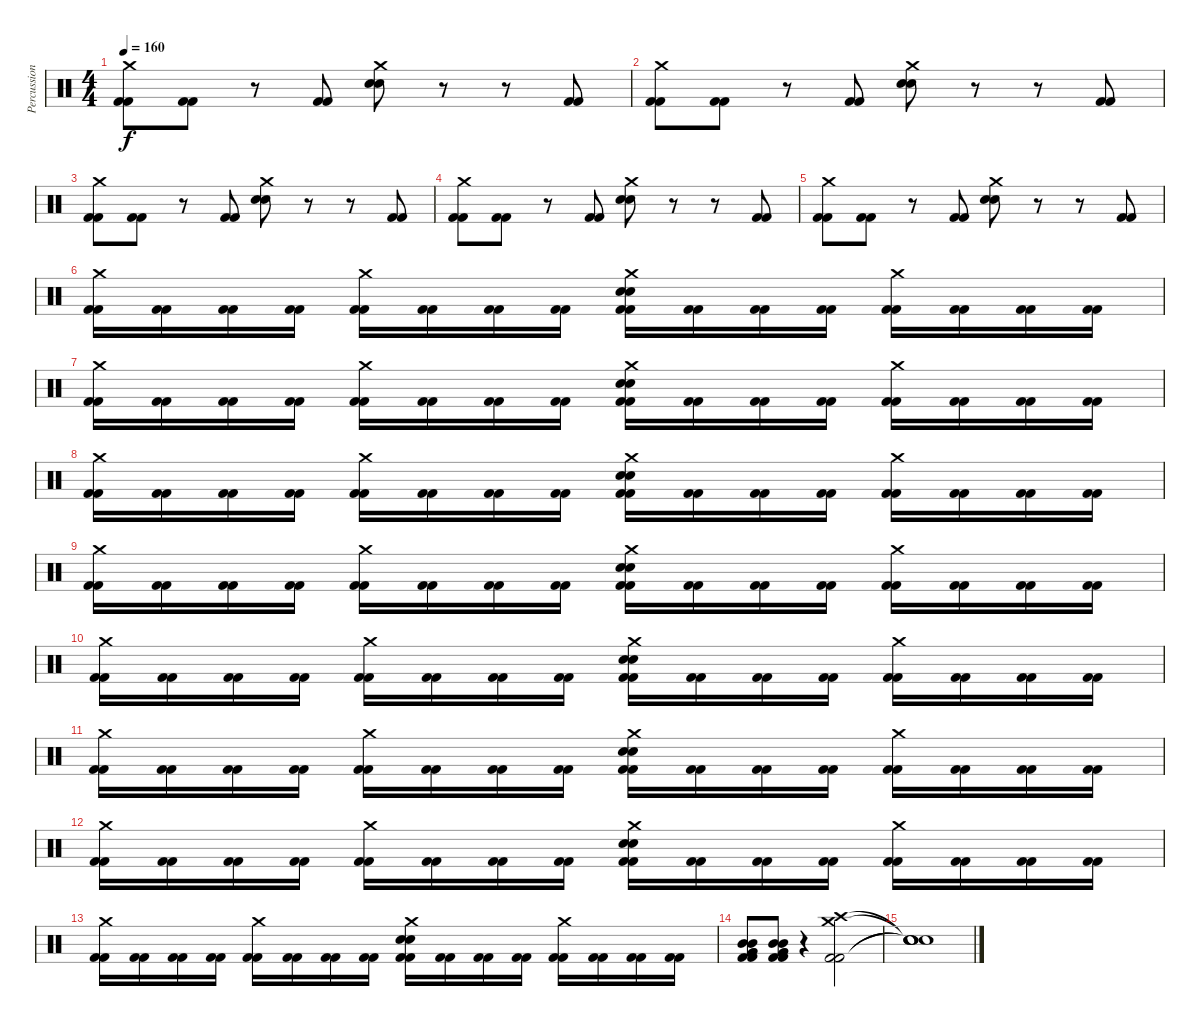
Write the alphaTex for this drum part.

\track ("Percussion" "Percussion") {instrument percussion}
\staff {score}
\articulation defaults
\ts (4 4)
\tempo 160
\clef neutral
\ks c
("Crash medium (hit)" "Kick (hit) 2" "Kick (hit) 2").8{dy f} ("Kick (hit) 2" "Kick (hit) 2").8 r.8 ("Kick (hit) 2" "Kick (hit) 2").8 ("Crash medium (hit)" "Snare (hit) 2" "Snare (hit) 2").8 r.8 r.8 ("Kick (hit) 2" "Kick (hit) 2").8 |
("Crash medium (hit)" "Kick (hit) 2" "Kick (hit) 2").8 ("Kick (hit) 2" "Kick (hit) 2").8 r.8 ("Kick (hit) 2" "Kick (hit) 2").8 ("Crash medium (hit)" "Snare (hit) 2" "Snare (hit) 2").8 r.8 r.8 ("Kick (hit) 2" "Kick (hit) 2").8 |
("Crash medium (hit)" "Kick (hit) 2" "Kick (hit) 2").8 ("Kick (hit) 2" "Kick (hit) 2").8 r.8 ("Kick (hit) 2" "Kick (hit) 2").8 ("Crash medium (hit)" "Snare (hit) 2" "Snare (hit) 2").8 r.8 r.8 ("Kick (hit) 2" "Kick (hit) 2").8 |
("Crash medium (hit)" "Kick (hit) 2" "Kick (hit) 2").8 ("Kick (hit) 2" "Kick (hit) 2").8 r.8 ("Kick (hit) 2" "Kick (hit) 2").8 ("Crash medium (hit)" "Snare (hit) 2" "Snare (hit) 2").8 r.8 r.8 ("Kick (hit) 2" "Kick (hit) 2").8 |
("Crash medium (hit)" "Kick (hit) 2" "Kick (hit) 2").8 ("Kick (hit) 2" "Kick (hit) 2").8 r.8 ("Kick (hit) 2" "Kick (hit) 2").8 ("Crash medium (hit)" "Snare (hit) 2" "Snare (hit) 2").8 r.8 r.8 ("Kick (hit) 2" "Kick (hit) 2").8 |
("Crash medium (hit)" "Kick (hit) 2" "Kick (hit) 2").16 ("Kick (hit) 2" "Kick (hit) 2").16 ("Kick (hit) 2" "Kick (hit) 2").16 ("Kick (hit) 2" "Kick (hit) 2").16 ("Crash medium (hit)" "Kick (hit) 2" "Kick (hit) 2").16 ("Kick (hit) 2" "Kick (hit) 2").16 ("Kick (hit) 2" "Kick (hit) 2").16 ("Kick (hit) 2" "Kick (hit) 2").16 ("Crash medium (hit)" "Snare (hit) 2" "Snare (hit) 2" "Kick (hit) 2" "Kick (hit) 2").16 ("Kick (hit) 2" "Kick (hit) 2").16 ("Kick (hit) 2" "Kick (hit) 2").16 ("Kick (hit) 2" "Kick (hit) 2").16 ("Crash medium (hit)" "Kick (hit) 2" "Kick (hit) 2").16 ("Kick (hit) 2" "Kick (hit) 2").16 ("Kick (hit) 2" "Kick (hit) 2").16 ("Kick (hit) 2" "Kick (hit) 2").16 |
("Crash medium (hit)" "Kick (hit) 2" "Kick (hit) 2").16 ("Kick (hit) 2" "Kick (hit) 2").16 ("Kick (hit) 2" "Kick (hit) 2").16 ("Kick (hit) 2" "Kick (hit) 2").16 ("Crash medium (hit)" "Kick (hit) 2" "Kick (hit) 2").16 ("Kick (hit) 2" "Kick (hit) 2").16 ("Kick (hit) 2" "Kick (hit) 2").16 ("Kick (hit) 2" "Kick (hit) 2").16 ("Crash medium (hit)" "Snare (hit) 2" "Snare (hit) 2" "Kick (hit) 2" "Kick (hit) 2").16 ("Kick (hit) 2" "Kick (hit) 2").16 ("Kick (hit) 2" "Kick (hit) 2").16 ("Kick (hit) 2" "Kick (hit) 2").16 ("Crash medium (hit)" "Kick (hit) 2" "Kick (hit) 2").16 ("Kick (hit) 2" "Kick (hit) 2").16 ("Kick (hit) 2" "Kick (hit) 2").16 ("Kick (hit) 2" "Kick (hit) 2").16 |
("Crash medium (hit)" "Kick (hit) 2" "Kick (hit) 2").16 ("Kick (hit) 2" "Kick (hit) 2").16 ("Kick (hit) 2" "Kick (hit) 2").16 ("Kick (hit) 2" "Kick (hit) 2").16 ("Crash medium (hit)" "Kick (hit) 2" "Kick (hit) 2").16 ("Kick (hit) 2" "Kick (hit) 2").16 ("Kick (hit) 2" "Kick (hit) 2").16 ("Kick (hit) 2" "Kick (hit) 2").16 ("Crash medium (hit)" "Snare (hit) 2" "Snare (hit) 2" "Kick (hit) 2" "Kick (hit) 2").16 ("Kick (hit) 2" "Kick (hit) 2").16 ("Kick (hit) 2" "Kick (hit) 2").16 ("Kick (hit) 2" "Kick (hit) 2").16 ("Crash medium (hit)" "Kick (hit) 2" "Kick (hit) 2").16 ("Kick (hit) 2" "Kick (hit) 2").16 ("Kick (hit) 2" "Kick (hit) 2").16 ("Kick (hit) 2" "Kick (hit) 2").16 |
("Crash medium (hit)" "Kick (hit) 2" "Kick (hit) 2").16 ("Kick (hit) 2" "Kick (hit) 2").16 ("Kick (hit) 2" "Kick (hit) 2").16 ("Kick (hit) 2" "Kick (hit) 2").16 ("Crash medium (hit)" "Kick (hit) 2" "Kick (hit) 2").16 ("Kick (hit) 2" "Kick (hit) 2").16 ("Kick (hit) 2" "Kick (hit) 2").16 ("Kick (hit) 2" "Kick (hit) 2").16 ("Crash medium (hit)" "Snare (hit) 2" "Snare (hit) 2" "Kick (hit) 2" "Kick (hit) 2").16 ("Kick (hit) 2" "Kick (hit) 2").16 ("Kick (hit) 2" "Kick (hit) 2").16 ("Kick (hit) 2" "Kick (hit) 2").16 ("Crash medium (hit)" "Kick (hit) 2" "Kick (hit) 2").16 ("Kick (hit) 2" "Kick (hit) 2").16 ("Kick (hit) 2" "Kick (hit) 2").16 ("Kick (hit) 2" "Kick (hit) 2").16 |
("Crash medium (hit)" "Kick (hit) 2" "Kick (hit) 2").16 ("Kick (hit) 2" "Kick (hit) 2").16 ("Kick (hit) 2" "Kick (hit) 2").16 ("Kick (hit) 2" "Kick (hit) 2").16 ("Crash medium (hit)" "Kick (hit) 2" "Kick (hit) 2").16 ("Kick (hit) 2" "Kick (hit) 2").16 ("Kick (hit) 2" "Kick (hit) 2").16 ("Kick (hit) 2" "Kick (hit) 2").16 ("Crash medium (hit)" "Snare (hit) 2" "Snare (hit) 2" "Kick (hit) 2" "Kick (hit) 2").16 ("Kick (hit) 2" "Kick (hit) 2").16 ("Kick (hit) 2" "Kick (hit) 2").16 ("Kick (hit) 2" "Kick (hit) 2").16 ("Crash medium (hit)" "Kick (hit) 2" "Kick (hit) 2").16 ("Kick (hit) 2" "Kick (hit) 2").16 ("Kick (hit) 2" "Kick (hit) 2").16 ("Kick (hit) 2" "Kick (hit) 2").16 |
("Crash medium (hit)" "Kick (hit) 2" "Kick (hit) 2").16 ("Kick (hit) 2" "Kick (hit) 2").16 ("Kick (hit) 2" "Kick (hit) 2").16 ("Kick (hit) 2" "Kick (hit) 2").16 ("Crash medium (hit)" "Kick (hit) 2" "Kick (hit) 2").16 ("Kick (hit) 2" "Kick (hit) 2").16 ("Kick (hit) 2" "Kick (hit) 2").16 ("Kick (hit) 2" "Kick (hit) 2").16 ("Crash medium (hit)" "Snare (hit) 2" "Snare (hit) 2" "Kick (hit) 2" "Kick (hit) 2").16 ("Kick (hit) 2" "Kick (hit) 2").16 ("Kick (hit) 2" "Kick (hit) 2").16 ("Kick (hit) 2" "Kick (hit) 2").16 ("Crash medium (hit)" "Kick (hit) 2" "Kick (hit) 2").16 ("Kick (hit) 2" "Kick (hit) 2").16 ("Kick (hit) 2" "Kick (hit) 2").16 ("Kick (hit) 2" "Kick (hit) 2").16 |
("Crash medium (hit)" "Kick (hit) 2" "Kick (hit) 2").16 ("Kick (hit) 2" "Kick (hit) 2").16 ("Kick (hit) 2" "Kick (hit) 2").16 ("Kick (hit) 2" "Kick (hit) 2").16 ("Crash medium (hit)" "Kick (hit) 2" "Kick (hit) 2").16 ("Kick (hit) 2" "Kick (hit) 2").16 ("Kick (hit) 2" "Kick (hit) 2").16 ("Kick (hit) 2" "Kick (hit) 2").16 ("Crash medium (hit)" "Snare (hit) 2" "Snare (hit) 2" "Kick (hit) 2" "Kick (hit) 2").16 ("Kick (hit) 2" "Kick (hit) 2").16 ("Kick (hit) 2" "Kick (hit) 2").16 ("Kick (hit) 2" "Kick (hit) 2").16 ("Crash medium (hit)" "Kick (hit) 2" "Kick (hit) 2").16 ("Kick (hit) 2" "Kick (hit) 2").16 ("Kick (hit) 2" "Kick (hit) 2").16 ("Kick (hit) 2" "Kick (hit) 2").16 |
("Crash medium (hit)" "Kick (hit) 2" "Kick (hit) 2").16 ("Kick (hit) 2" "Kick (hit) 2").16 ("Kick (hit) 2" "Kick (hit) 2").16 ("Kick (hit) 2" "Kick (hit) 2").16 ("Crash medium (hit)" "Kick (hit) 2" "Kick (hit) 2").16 ("Kick (hit) 2" "Kick (hit) 2").16 ("Kick (hit) 2" "Kick (hit) 2").16 ("Kick (hit) 2" "Kick (hit) 2").16 ("Crash medium (hit)" "Snare (hit) 2" "Snare (hit) 2" "Kick (hit) 2" "Kick (hit) 2").16 ("Kick (hit) 2" "Kick (hit) 2").16 ("Kick (hit) 2" "Kick (hit) 2").16 ("Kick (hit) 2" "Kick (hit) 2").16 ("Crash medium (hit)" "Kick (hit) 2" "Kick (hit) 2").16 ("Kick (hit) 2" "Kick (hit) 2").16 ("Kick (hit) 2" "Kick (hit) 2").16 ("Kick (hit) 2" "Kick (hit) 2").16 |
("Kick (hit) 2" "Kick (hit) 2" "Mid Tom (hit)" "Mid Tom (hit)" "Very Low Tom (hit)" "Very Low Tom (hit)").8 ("Kick (hit) 2" "Kick (hit) 2" "Mid Tom (hit)" "Mid Tom (hit)" "Very Low Tom (hit)" "Very Low Tom (hit)").8 r.4 ("Crash high (hit)" "Crash medium (hit)" "Kick (hit) 2" "Kick (hit) 2").2 |
("Snare (hit)"{t} "Snare (hit)"{t} "Snare (hit)"{t} "Snare (hit)"{t}).1
